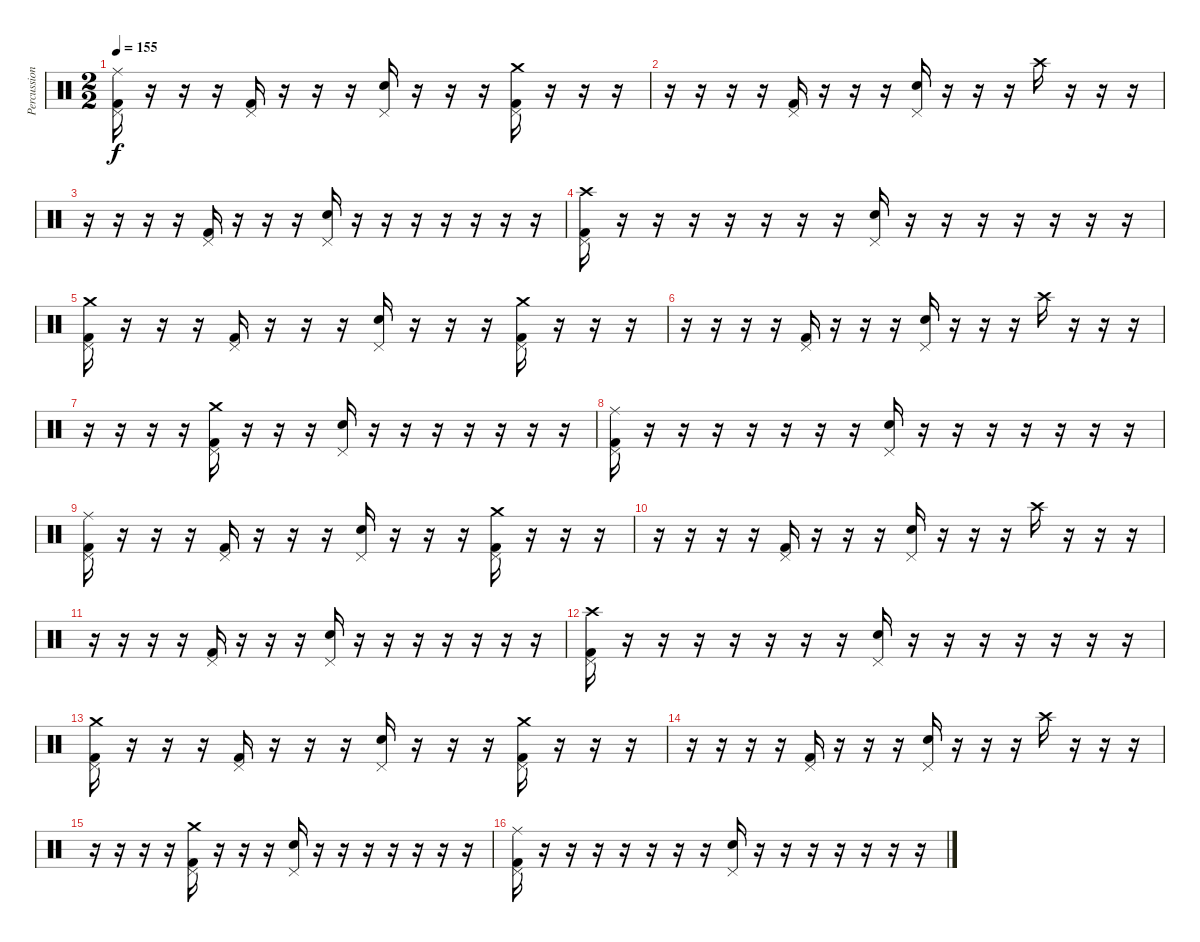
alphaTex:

\track ("Percussion" "Percussion") {instrument percussion}
\staff {score}
\articulation defaults
\ts (2 2)
\tempo 155
\clef neutral
\ks c
("Ride (middle)" "Pedal Hi-Hat (hit)" "Kick (hit) 2").16{dy f} r.16 r.16 r.16 ("Pedal Hi-Hat (hit)" "Kick (hit) 2").16 r.16 r.16 r.16 ("Pedal Hi-Hat (hit)" "Snare (hit) 2").16 r.16 r.16 r.16 ("Crash medium (hit)" "Pedal Hi-Hat (hit)" "Kick (hit) 2").16 r.16 r.16 r.16 |
r.16 r.16 r.16 r.16 ("Pedal Hi-Hat (hit)" "Kick (hit) 2").16 r.16 r.16 r.16 ("Pedal Hi-Hat (hit)" "Snare (hit) 2").16 r.16 r.16 r.16 "Crash high (hit)".16 r.16 r.16 r.16 |
r.16 r.16 r.16 r.16 ("Pedal Hi-Hat (hit)" "Kick (hit) 2").16 r.16 r.16 r.16 ("Pedal Hi-Hat (hit)" "Snare (hit) 2").16 r.16 r.16 r.16 r.16 r.16 r.16 r.16 |
("Crash high (hit)" "Pedal Hi-Hat (hit)" "Kick (hit) 2").16 r.16 r.16 r.16 r.16 r.16 r.16 r.16 ("Pedal Hi-Hat (hit)" "Snare (hit) 2").16 r.16 r.16 r.16 r.16 r.16 r.16 r.16 |
("Crash medium (hit)" "Pedal Hi-Hat (hit)" "Kick (hit) 2").16 r.16 r.16 r.16 ("Pedal Hi-Hat (hit)" "Kick (hit) 2").16 r.16 r.16 r.16 ("Pedal Hi-Hat (hit)" "Snare (hit) 2").16 r.16 r.16 r.16 ("Crash medium (hit)" "Pedal Hi-Hat (hit)" "Kick (hit) 2").16 r.16 r.16 r.16 |
r.16 r.16 r.16 r.16 ("Pedal Hi-Hat (hit)" "Kick (hit) 2").16 r.16 r.16 r.16 ("Pedal Hi-Hat (hit)" "Snare (hit) 2").16 r.16 r.16 r.16 "Crash high (hit)".16 r.16 r.16 r.16 |
r.16 r.16 r.16 r.16 ("Crash medium (hit)" "Pedal Hi-Hat (hit)" "Kick (hit) 2").16 r.16 r.16 r.16 ("Pedal Hi-Hat (hit)" "Snare (hit) 2").16 r.16 r.16 r.16 r.16 r.16 r.16 r.16 |
("Ride (middle)" "Pedal Hi-Hat (hit)" "Kick (hit) 2").16 r.16 r.16 r.16 r.16 r.16 r.16 r.16 ("Pedal Hi-Hat (hit)" "Snare (hit) 2").16 r.16 r.16 r.16 r.16 r.16 r.16 r.16 |
("Ride (middle)" "Pedal Hi-Hat (hit)" "Kick (hit) 2").16 r.16 r.16 r.16 ("Pedal Hi-Hat (hit)" "Kick (hit) 2").16 r.16 r.16 r.16 ("Pedal Hi-Hat (hit)" "Snare (hit) 2").16 r.16 r.16 r.16 ("Crash medium (hit)" "Pedal Hi-Hat (hit)" "Kick (hit) 2").16 r.16 r.16 r.16 |
r.16 r.16 r.16 r.16 ("Pedal Hi-Hat (hit)" "Kick (hit) 2").16 r.16 r.16 r.16 ("Pedal Hi-Hat (hit)" "Snare (hit) 2").16 r.16 r.16 r.16 "Crash high (hit)".16 r.16 r.16 r.16 |
r.16 r.16 r.16 r.16 ("Pedal Hi-Hat (hit)" "Kick (hit) 2").16 r.16 r.16 r.16 ("Pedal Hi-Hat (hit)" "Snare (hit) 2").16 r.16 r.16 r.16 r.16 r.16 r.16 r.16 |
("Crash high (hit)" "Pedal Hi-Hat (hit)" "Kick (hit) 2").16 r.16 r.16 r.16 r.16 r.16 r.16 r.16 ("Pedal Hi-Hat (hit)" "Snare (hit) 2").16 r.16 r.16 r.16 r.16 r.16 r.16 r.16 |
("Crash medium (hit)" "Pedal Hi-Hat (hit)" "Kick (hit) 2").16 r.16 r.16 r.16 ("Pedal Hi-Hat (hit)" "Kick (hit) 2").16 r.16 r.16 r.16 ("Pedal Hi-Hat (hit)" "Snare (hit) 2").16 r.16 r.16 r.16 ("Crash medium (hit)" "Pedal Hi-Hat (hit)" "Kick (hit) 2").16 r.16 r.16 r.16 |
r.16 r.16 r.16 r.16 ("Pedal Hi-Hat (hit)" "Kick (hit) 2").16 r.16 r.16 r.16 ("Pedal Hi-Hat (hit)" "Snare (hit) 2").16 r.16 r.16 r.16 "Crash high (hit)".16 r.16 r.16 r.16 |
r.16 r.16 r.16 r.16 ("Crash medium (hit)" "Pedal Hi-Hat (hit)" "Kick (hit) 2").16 r.16 r.16 r.16 ("Pedal Hi-Hat (hit)" "Snare (hit) 2").16 r.16 r.16 r.16 r.16 r.16 r.16 r.16 |
("Ride (middle)" "Pedal Hi-Hat (hit)" "Kick (hit) 2").16 r.16 r.16 r.16 r.16 r.16 r.16 r.16 ("Pedal Hi-Hat (hit)" "Snare (hit) 2").16 r.16 r.16 r.16 r.16 r.16 r.16 r.16
